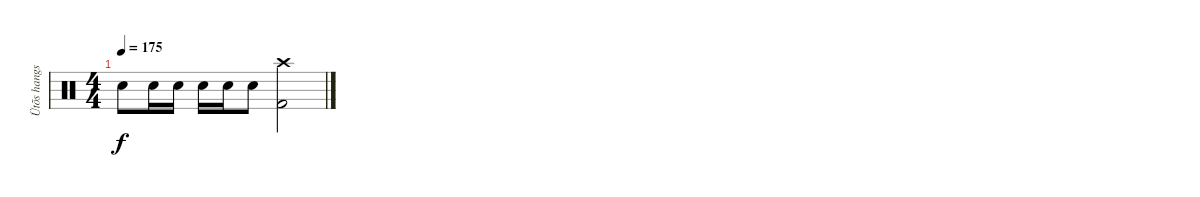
\track ("Ütõs hangszer" "Ütõs hangs") {instrument percussion}
\staff {score}
\articulation defaults
\ts (4 4)
\tempo 175
\clef neutral
\ks c "Electric Snare (hit)".8{dy f} "Electric Snare (hit)".16 "Electric Snare (hit)".16 "Electric Snare (hit)".16 "Electric Snare (hit)".16 "Electric Snare (hit)".8
("Crash high (hit)" "Kick (hit) 2").2
